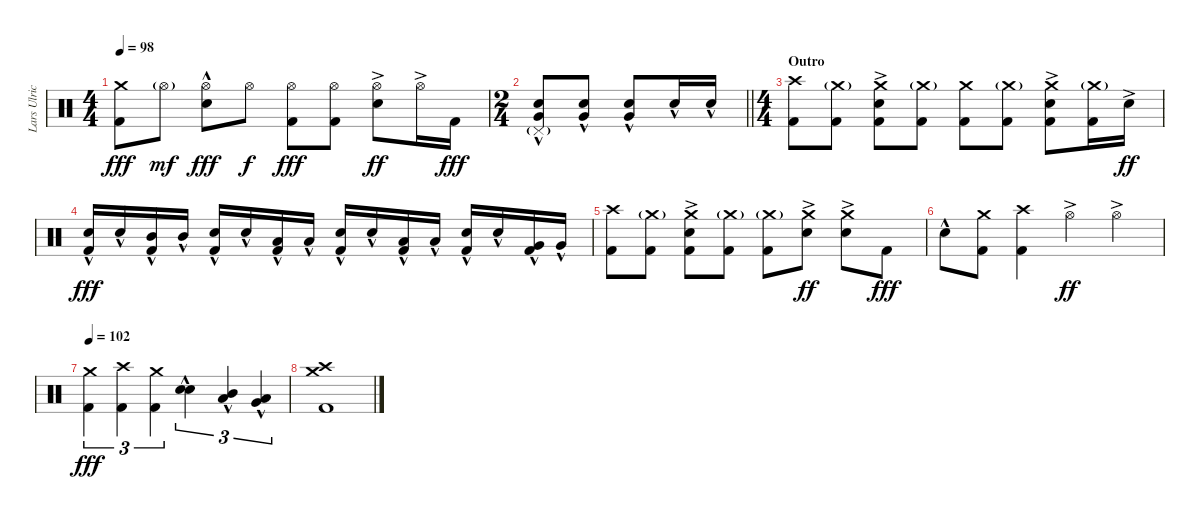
\track ("Lars Ulrich (Drums)" "Lars Ulric") {instrument percussion}
\staff {score}
\articulation defaults
\ts (4 4)
\tempo 98
\clef neutral
\ks c
("Crash medium (hit)" "Kick (hit) 2").8{dy fff} "Hi-Hat (open)"{g}.8{dy mf} ("Hi-Hat (open)"{hac} "Electric Snare (hit)"{hac}).8{dy fff} "Hi-Hat (open)".8{dy f} ("Hi-Hat (open)" "Kick (hit) 2").8{dy fff} ("Hi-Hat (open)" "Kick (hit) 2").8 ("Hi-Hat (open)"{ac} "Electric Snare (hit)"{ac}).8{dy ff} "Hi-Hat (open)"{ac}.16 "Kick (hit) 2".16{dy fff} |
\ts (2 4)
\barLineRight lightlight
("Pedal Hi-Hat (hit)"{g} "Electric Snare (hit)"{hac} "Very Low Tom (hit)"{hac}).8 ("Electric Snare (hit)"{hac} "Very Low Tom (hit)"{hac}).8 ("Electric Snare (hit)"{hac} "Very Low Tom (hit)"{hac}).8 "Electric Snare (hit)"{hac}.16 "Electric Snare (hit)"{hac}.16 |
\ts (4 4)
\section ("" "Outro")
("Crash high (hit)" "Kick (hit) 2").8 ("Crash medium (hit)"{g} "Kick (hit) 2").8 ("Crash medium (hit)" "Electric Snare (hit)"{ac} "Kick (hit) 2").8 ("Crash medium (hit)"{g} "Kick (hit) 2").8 ("Crash medium (hit)" "Kick (hit) 2").8 ("Crash medium (hit)"{g} "Kick (hit) 2").8 ("Crash medium (hit)" "Electric Snare (hit)"{ac} "Kick (hit) 2").8 ("Crash medium (hit)"{g} "Kick (hit) 2").16 "Electric Snare (hit)"{ac}.16{dy ff} |
("Electric Snare (hit)"{hac} "Kick (hit) 2").16{dy fff} "Electric Snare (hit)"{hac}.16 ("Mid Tom (hit)"{hac} "Kick (hit) 2").16 "Mid Tom (hit)"{hac}.16 ("Electric Snare (hit)"{hac} "Kick (hit) 2").16 "Electric Snare (hit)"{hac}.16 ("Low Tom (hit)"{hac} "Kick (hit) 2").16 "Low Tom (hit)"{hac}.16 ("Electric Snare (hit)"{hac} "Kick (hit) 2").16 "Electric Snare (hit)"{hac}.16 ("Low Tom (hit)"{hac} "Kick (hit) 2").16 "Low Tom (hit)"{hac}.16 ("Electric Snare (hit)"{hac} "Kick (hit) 2").16 "Electric Snare (hit)"{hac}.16 ("Very Low Tom (hit)"{hac} "Kick (hit) 2").16 "Very Low Tom (hit)"{hac}.16 |
("Crash high (hit)" "Kick (hit) 2").8 ("Crash medium (hit)"{g} "Kick (hit) 2").8 ("Crash medium (hit)" "Electric Snare (hit)"{ac} "Kick (hit) 2").8 ("Crash medium (hit)"{g} "Kick (hit) 2").8 ("Crash medium (hit)"{g} "Kick (hit) 2").8 ("Crash medium (hit)" "Electric Snare (hit)"{ac}).8{dy ff} ("Crash medium (hit)" "Electric Snare (hit)"{ac}).8 "Kick (hit) 2".8{dy fff} |
"Electric Snare (hit)"{hac}.8 ("Crash medium (hit)" "Kick (hit) 2").8 ("Crash high (hit)" "Kick (hit) 2").4 "Hi-Hat (open)"{ac}.4{dy ff} "Hi-Hat (open)"{ac}.4 |
\tempo 102
("Crash medium (hit)" "Kick (hit) 2").4{tu (3 2) dy fff} ("Crash high (hit)" "Kick (hit) 2").4{tu (3 2)} ("Crash medium (hit)" "Kick (hit) 2").4{tu (3 2)} ("Electric Snare (hit)"{hac} "Electric Snare (hit)"{hac}).4{tu (3 2) bd 60} ("Mid Tom (hit)"{hac} "Low Tom (hit)"{hac}).4{tu (3 2) bu 60} ("Low Tom (hit)"{hac} "Very Low Tom (hit)"{hac}).4{tu (3 2) bu 60} |
("Crash medium (hit)" "Crash high (hit)" "Kick (hit) 2").1
